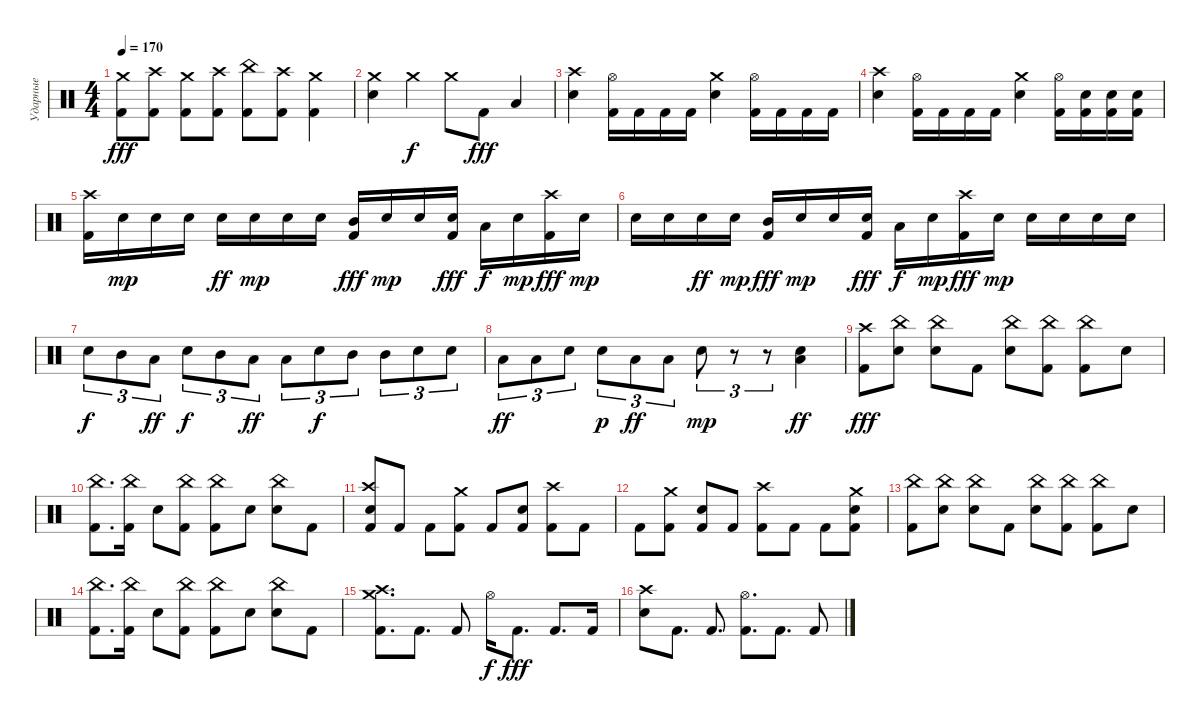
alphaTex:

\track ("Ударные" "Ударные") {instrument percussion}
\staff {score}
\articulation defaults
\ts (4 4)
\tempo 170
\clef neutral
\ks c
("Crash medium (hit)" "Kick (hit) 2").8{dy fff} ("Crash high (hit)" "Kick (hit) 2").8 ("Crash medium (hit)" "Kick (hit) 2").8 ("Crash high (hit)" "Kick (hit) 2").8 ("China (hit)" "Kick (hit) 2").8 ("Crash high (hit)" "Kick (hit) 2").8 ("Crash medium (hit)" "Kick (hit) 2").4 |
("Crash medium (hit)" "Electric Snare (hit)").4 "Crash medium (hit)".4{dy f} "Crash medium (hit)".8 "Kick (hit) 2".8{dy fff} "Low Floor Tom (hit)".4 |
("Crash high (hit)" "Electric Snare (hit)").4 ("Hi-Hat (open)" "Kick (hit) 2").16 "Kick (hit) 2".16 "Kick (hit) 2".16 "Kick (hit) 2".16 ("Crash medium (hit)" "Electric Snare (hit)").4 ("Hi-Hat (open)" "Kick (hit) 2").16 "Kick (hit) 2".16 "Kick (hit) 2".16 "Kick (hit) 2".16 |
("Crash high (hit)" "Electric Snare (hit)").4 ("Hi-Hat (open)" "Kick (hit) 2").16 "Kick (hit) 2".16 "Kick (hit) 2".16 "Kick (hit) 2".16 ("Crash medium (hit)" "Electric Snare (hit)").4 ("Hi-Hat (open)" "Kick (hit) 2").16 ("Electric Snare (hit)" "Kick (hit) 2").16 ("Electric Snare (hit)" "Kick (hit) 2").16 ("Electric Snare (hit)" "Kick (hit) 2").16 |
("Crash high (hit)" "Kick (hit) 2").16 "Electric Snare (hit)".16{dy mp} "Electric Snare (hit)".16 "Electric Snare (hit)".16 "Electric Snare (hit)".16{dy ff} "Electric Snare (hit)".16{dy mp} "Electric Snare (hit)".16 "Electric Snare (hit)".16 ("Mid Tom (hit)" "Kick (hit) 2").16{dy fff} "Electric Snare (hit)".16{dy mp} "Electric Snare (hit)".16 ("Electric Snare (hit)" "Kick (hit) 2").16{dy fff} "Low Floor Tom (hit)".16{dy f} "Electric Snare (hit)".16{dy mp} ("Crash high (hit)" "Kick (hit) 2").16{dy fff} "Electric Snare (hit)".16{dy mp} |
"Electric Snare (hit)".16 "Electric Snare (hit)".16 "Electric Snare (hit)".16{dy ff} "Electric Snare (hit)".16{dy mp} ("Mid Tom (hit)" "Kick (hit) 2").16{dy fff} "Electric Snare (hit)".16{dy mp} "Electric Snare (hit)".16 ("Electric Snare (hit)" "Kick (hit) 2").16{dy fff} "Low Floor Tom (hit)".16{dy f} "Electric Snare (hit)".16{dy mp} ("Crash high (hit)" "Kick (hit) 2").16{dy fff} "Electric Snare (hit)".16{dy mp} "Electric Snare (hit)".16 "Electric Snare (hit)".16 "Electric Snare (hit)".16 "Electric Snare (hit)".16 |
"Electric Snare (hit)".8{tu (3 2) dy f} "Mid Tom (hit)".8{tu (3 2)} "Low Floor Tom (hit)".8{tu (3 2) dy ff} "Electric Snare (hit)".8{tu (3 2) dy f} "Mid Tom (hit)".8{tu (3 2)} "Low Floor Tom (hit)".8{tu (3 2) dy ff} "Low Floor Tom (hit)".8{tu (3 2)} "Electric Snare (hit)".8{tu (3 2) dy f} "Mid Tom (hit)".8{tu (3 2)} "Mid Tom (hit)".8{tu (3 2)} "Electric Snare (hit)".8{tu (3 2)} "Electric Snare (hit)".8{tu (3 2)} |
"Low Tom (hit)".8{tu (3 2) dy ff} "Low Tom (hit)".8{tu (3 2)} "Electric Snare (hit)".8{tu (3 2)} "Electric Snare (hit)".8{tu (3 2) dy p} "Low Floor Tom (hit)".8{tu (3 2) dy ff} "Low Floor Tom (hit)".8{tu (3 2)} "Electric Snare (hit)".8{tu (3 2) dy mp} r.8{tu (3 2)} r.8{tu (3 2)} ("Low Floor Tom (hit)" "Electric Snare (hit)").4{dy ff} |
("Crash high (hit)" "Kick (hit) 2").8{dy fff} ("China (hit)" "Electric Snare (hit)").8 ("China (hit)" "Electric Snare (hit)").8 "Kick (hit) 2".8 ("China (hit)" "Electric Snare (hit)").8 ("China (hit)" "Kick (hit) 2").8 ("China (hit)" "Kick (hit) 2").8 "Electric Snare (hit)".8 |
("China (hit)" "Kick (hit) 2").8{d} ("China (hit)" "Kick (hit) 2").16 "Electric Snare (hit)".8 ("China (hit)" "Kick (hit) 2").8 ("China (hit)" "Kick (hit) 2").8 "Electric Snare (hit)".8 ("China (hit)" "Electric Snare (hit)").8 "Kick (hit) 2".8 |
("Crash high (hit)" "Electric Snare (hit)" "Kick (hit) 2").8 "Kick (hit) 2".8 "Kick (hit) 2".8 ("Crash medium (hit)" "Kick (hit) 2").8 "Kick (hit) 2".8 ("Electric Snare (hit)" "Kick (hit) 2").8 ("Crash high (hit)" "Kick (hit) 2").8 "Kick (hit) 2".8 |
"Kick (hit) 2".8 ("Crash medium (hit)" "Kick (hit) 2").8 ("Electric Snare (hit)" "Kick (hit) 2").8 "Kick (hit) 2".8 ("Crash high (hit)" "Kick (hit) 2").8 "Kick (hit) 2".8 "Kick (hit) 2".8 ("Crash medium (hit)" "Electric Snare (hit)" "Kick (hit) 2").8 |
("China (hit)" "Kick (hit) 2").8 ("China (hit)" "Electric Snare (hit)").8 ("China (hit)" "Electric Snare (hit)").8 "Kick (hit) 2".8 ("China (hit)" "Electric Snare (hit)").8 ("China (hit)" "Kick (hit) 2").8 ("China (hit)" "Kick (hit) 2").8 "Electric Snare (hit)".8 |
("China (hit)" "Kick (hit) 2").8{d} ("China (hit)" "Kick (hit) 2").16 "Electric Snare (hit)".8 ("China (hit)" "Kick (hit) 2").8 ("China (hit)" "Kick (hit) 2").8 "Electric Snare (hit)".8 ("China (hit)" "Electric Snare (hit)").8 "Kick (hit) 2".8 |
("Crash high (hit)" "Crash medium (hit)" "Kick (hit) 2").8{d} "Kick (hit) 2".8{d} "Kick (hit) 2".8 "Hi-Hat (open)".16{dy f} "Kick (hit) 2".8{d dy fff} "Kick (hit) 2".8{d} "Kick (hit) 2".16 |
("Crash high (hit)" "Electric Snare (hit)").8 "Kick (hit) 2".8{d} "Kick (hit) 2".8{d} ("Hi-Hat (open)" "Kick (hit) 2").8{d} "Kick (hit) 2".8{d} "Kick (hit) 2".8
